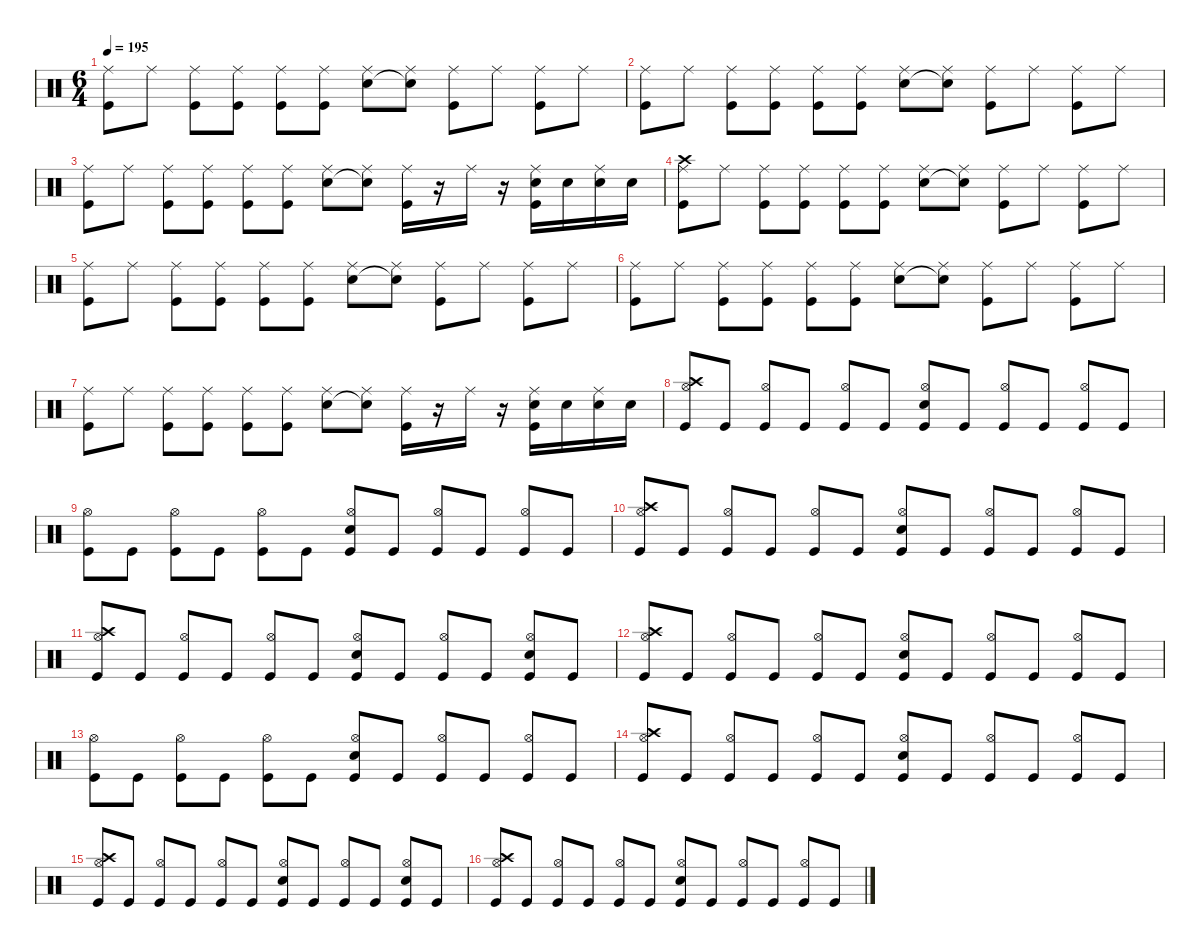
\defaultSystemsLayout 4
\hideDynamics
\bracketExtendMode nobrackets
\singleTrackTrackNamePolicy hidden
\multiTrackTrackNamePolicy hidden
\firstSystemTrackNameMode fullname
\firstSystemTrackNameOrientation horizontal
\otherSystemsTrackNameOrientation horizontal
\track ("Percussion" "drm.") {instrument percussion}
\staff {score}
\articulation defaults
\ts (6 4)
\tempo 195
\clef neutral
\ks c
("Ride (middle)" "Kick (hit)").8{dy f beam Down} "Ride (middle)".8{beam Down} ("Ride (middle)" "Kick (hit)").8{beam Down} ("Ride (middle)" "Kick (hit)").8{beam Down} ("Ride (middle)" "Kick (hit)").8{beam Down} ("Ride (middle)" "Kick (hit)").8{beam Down} ("Ride (middle)" "Snare (hit) 2").8{beam Down} ("Ride (middle)" "Snare (hit) 2"{t}).8{beam Down} ("Ride (middle)" "Kick (hit)").8{beam Down} "Ride (middle)".8{beam Down} ("Ride (middle)" "Kick (hit)").8{beam Down} "Ride (middle)".8{beam Down} |
("Ride (middle)" "Kick (hit)").8{beam Down} "Ride (middle)".8{beam Down} ("Ride (middle)" "Kick (hit)").8{beam Down} ("Ride (middle)" "Kick (hit)").8{beam Down} ("Ride (middle)" "Kick (hit)").8{beam Down} ("Ride (middle)" "Kick (hit)").8{beam Down} ("Ride (middle)" "Snare (hit) 2").8{beam Down} ("Ride (middle)" "Snare (hit) 2"{t}).8{beam Down} ("Ride (middle)" "Kick (hit)").8{beam Down} "Ride (middle)".8{beam Down} ("Ride (middle)" "Kick (hit)").8{beam Down} "Ride (middle)".8{beam Down} |
("Ride (middle)" "Kick (hit)").8{beam Down} "Ride (middle)".8{beam Down} ("Ride (middle)" "Kick (hit)").8{beam Down} ("Ride (middle)" "Kick (hit)").8{beam Down} ("Ride (middle)" "Kick (hit)").8{beam Down} ("Ride (middle)" "Kick (hit)").8{beam Down} ("Ride (middle)" "Snare (hit) 2").8{beam Down} ("Ride (middle)" "Snare (hit) 2"{t}).8{beam Down} ("Ride (middle)" "Kick (hit)").16{beam Down} r.16{beam Down} "Ride (middle)".16{beam Down} r.16{beam Down} ("Ride (middle)" "Snare (hit) 2" "Kick (hit)").16{beam Down} "Snare (hit) 2".16{beam Down} ("Ride (middle)" "Snare (hit) 2").16{beam Down} "Snare (hit) 2".16{beam Down} |
("Crash high (hit)" "Ride (middle)" "Kick (hit)").8{beam Down} "Ride (middle)".8{beam Down} ("Ride (middle)" "Kick (hit)").8{beam Down} ("Ride (middle)" "Kick (hit)").8{beam Down} ("Ride (middle)" "Kick (hit)").8{beam Down} ("Ride (middle)" "Kick (hit)").8{beam Down} ("Ride (middle)" "Snare (hit) 2").8{beam Down} ("Ride (middle)" "Snare (hit) 2"{t}).8{beam Down} ("Ride (middle)" "Kick (hit)").8{beam Down} "Ride (middle)".8{beam Down} ("Ride (middle)" "Kick (hit)").8{beam Down} "Ride (middle)".8{beam Down} |
("Ride (middle)" "Kick (hit)").8{beam Down} "Ride (middle)".8{beam Down} ("Ride (middle)" "Kick (hit)").8{beam Down} ("Ride (middle)" "Kick (hit)").8{beam Down} ("Ride (middle)" "Kick (hit)").8{beam Down} ("Ride (middle)" "Kick (hit)").8{beam Down} ("Ride (middle)" "Snare (hit) 2").8{beam Down} ("Ride (middle)" "Snare (hit) 2"{t}).8{beam Down} ("Ride (middle)" "Kick (hit)").8{beam Down} "Ride (middle)".8{beam Down} ("Ride (middle)" "Kick (hit)").8{beam Down} "Ride (middle)".8{beam Down} |
("Ride (middle)" "Kick (hit)").8{beam Down} "Ride (middle)".8{beam Down} ("Ride (middle)" "Kick (hit)").8{beam Down} ("Ride (middle)" "Kick (hit)").8{beam Down} ("Ride (middle)" "Kick (hit)").8{beam Down} ("Ride (middle)" "Kick (hit)").8{beam Down} ("Ride (middle)" "Snare (hit) 2").8{beam Down} ("Ride (middle)" "Snare (hit) 2"{t}).8{beam Down} ("Ride (middle)" "Kick (hit)").8{beam Down} "Ride (middle)".8{beam Down} ("Ride (middle)" "Kick (hit)").8{beam Down} "Ride (middle)".8{beam Down} |
("Ride (middle)" "Kick (hit)").8{beam Down} "Ride (middle)".8{beam Down} ("Ride (middle)" "Kick (hit)").8{beam Down} ("Ride (middle)" "Kick (hit)").8{beam Down} ("Ride (middle)" "Kick (hit)").8{beam Down} ("Ride (middle)" "Kick (hit)").8{beam Down} ("Ride (middle)" "Snare (hit) 2").8{beam Down} ("Ride (middle)" "Snare (hit) 2"{t}).8{beam Down} ("Ride (middle)" "Kick (hit)").16{beam Down} r.16{beam Down} "Ride (middle)".16{beam Down} r.16{beam Down} ("Ride (middle)" "Snare (hit) 2" "Kick (hit)").16{beam Down} "Snare (hit) 2".16{beam Down} ("Ride (middle)" "Snare (hit) 2").16{beam Down} "Snare (hit) 2".16{beam Down} |
("Crash high (hit)" "Hi-Hat (open)" "Kick (hit)").8{beam Up} "Kick (hit)".8{beam Up} ("Hi-Hat (open)" "Kick (hit)").8{beam Up} "Kick (hit)".8{beam Up} ("Hi-Hat (open)" "Kick (hit)").8{beam Up} "Kick (hit)".8{beam Up} ("Snare (hit) 2" "Hi-Hat (open)" "Kick (hit)").8{beam Up} "Kick (hit)".8{beam Up} ("Hi-Hat (open)" "Kick (hit)").8{beam Up} "Kick (hit)".8{beam Up} ("Hi-Hat (open)" "Kick (hit)").8{beam Up} "Kick (hit)".8{beam Up} |
("Hi-Hat (open)" "Kick (hit)").8{beam Down} "Kick (hit)".8{beam Down} ("Hi-Hat (open)" "Kick (hit)").8{beam Down} "Kick (hit)".8{beam Down} ("Hi-Hat (open)" "Kick (hit)").8{beam Down} "Kick (hit)".8{beam Down} ("Snare (hit) 2" "Hi-Hat (open)" "Kick (hit)").8{beam Up} "Kick (hit)".8{beam Up} ("Hi-Hat (open)" "Kick (hit)").8{beam Up} "Kick (hit)".8{beam Up} ("Hi-Hat (open)" "Kick (hit)").8{beam Up} "Kick (hit)".8{beam Up} |
("Crash high (hit)" "Hi-Hat (open)" "Kick (hit)").8{beam Up} "Kick (hit)".8{beam Up} ("Hi-Hat (open)" "Kick (hit)").8{beam Up} "Kick (hit)".8{beam Up} ("Hi-Hat (open)" "Kick (hit)").8{beam Up} "Kick (hit)".8{beam Up} ("Snare (hit) 2" "Hi-Hat (open)" "Kick (hit)").8{beam Up} "Kick (hit)".8{beam Up} ("Hi-Hat (open)" "Kick (hit)").8{beam Up} "Kick (hit)".8{beam Up} ("Hi-Hat (open)" "Kick (hit)").8{beam Up} "Kick (hit)".8{beam Up} |
("Crash high (hit)" "Hi-Hat (open)" "Kick (hit)").8{beam Up} "Kick (hit)".8{beam Up} ("Hi-Hat (open)" "Kick (hit)").8{beam Up} "Kick (hit)".8{beam Up} ("Hi-Hat (open)" "Kick (hit)").8{beam Up} "Kick (hit)".8{beam Up} ("Snare (hit) 2" "Hi-Hat (open)" "Kick (hit)").8{beam Up} "Kick (hit)".8{beam Up} ("Hi-Hat (open)" "Kick (hit)").8{beam Up} "Kick (hit)".8{beam Up} ("Snare (hit) 2" "Hi-Hat (open)" "Kick (hit)").8{beam Up} "Kick (hit)".8{beam Up} |
("Crash high (hit)" "Hi-Hat (open)" "Kick (hit)").8{beam Up} "Kick (hit)".8{beam Up} ("Hi-Hat (open)" "Kick (hit)").8{beam Up} "Kick (hit)".8{beam Up} ("Hi-Hat (open)" "Kick (hit)").8{beam Up} "Kick (hit)".8{beam Up} ("Snare (hit) 2" "Hi-Hat (open)" "Kick (hit)").8{beam Up} "Kick (hit)".8{beam Up} ("Hi-Hat (open)" "Kick (hit)").8{beam Up} "Kick (hit)".8{beam Up} ("Hi-Hat (open)" "Kick (hit)").8{beam Up} "Kick (hit)".8{beam Up} |
("Hi-Hat (open)" "Kick (hit)").8{beam Down} "Kick (hit)".8{beam Down} ("Hi-Hat (open)" "Kick (hit)").8{beam Down} "Kick (hit)".8{beam Down} ("Hi-Hat (open)" "Kick (hit)").8{beam Down} "Kick (hit)".8{beam Down} ("Snare (hit) 2" "Hi-Hat (open)" "Kick (hit)").8{beam Up} "Kick (hit)".8{beam Up} ("Hi-Hat (open)" "Kick (hit)").8{beam Up} "Kick (hit)".8{beam Up} ("Hi-Hat (open)" "Kick (hit)").8{beam Up} "Kick (hit)".8{beam Up} |
("Crash high (hit)" "Hi-Hat (open)" "Kick (hit)").8{beam Up} "Kick (hit)".8{beam Up} ("Hi-Hat (open)" "Kick (hit)").8{beam Up} "Kick (hit)".8{beam Up} ("Hi-Hat (open)" "Kick (hit)").8{beam Up} "Kick (hit)".8{beam Up} ("Snare (hit) 2" "Hi-Hat (open)" "Kick (hit)").8{beam Up} "Kick (hit)".8{beam Up} ("Hi-Hat (open)" "Kick (hit)").8{beam Up} "Kick (hit)".8{beam Up} ("Hi-Hat (open)" "Kick (hit)").8{beam Up} "Kick (hit)".8{beam Up} |
("Crash high (hit)" "Hi-Hat (open)" "Kick (hit)").8{beam Up} "Kick (hit)".8{beam Up} ("Hi-Hat (open)" "Kick (hit)").8{beam Up} "Kick (hit)".8{beam Up} ("Hi-Hat (open)" "Kick (hit)").8{beam Up} "Kick (hit)".8{beam Up} ("Snare (hit) 2" "Hi-Hat (open)" "Kick (hit)").8{beam Up} "Kick (hit)".8{beam Up} ("Hi-Hat (open)" "Kick (hit)").8{beam Up} "Kick (hit)".8{beam Up} ("Snare (hit) 2" "Hi-Hat (open)" "Kick (hit)").8{beam Up} "Kick (hit)".8{beam Up} |
("Crash high (hit)" "Hi-Hat (open)" "Kick (hit)").8{beam Up} "Kick (hit)".8{beam Up} ("Hi-Hat (open)" "Kick (hit)").8{beam Up} "Kick (hit)".8{beam Up} ("Hi-Hat (open)" "Kick (hit)").8{beam Up} "Kick (hit)".8{beam Up} ("Snare (hit) 2" "Hi-Hat (open)" "Kick (hit)").8{beam Up} "Kick (hit)".8{beam Up} ("Hi-Hat (open)" "Kick (hit)").8{beam Up} "Kick (hit)".8{beam Up} ("Hi-Hat (open)" "Kick (hit)").8{beam Up} "Kick (hit)".8{beam Up}
